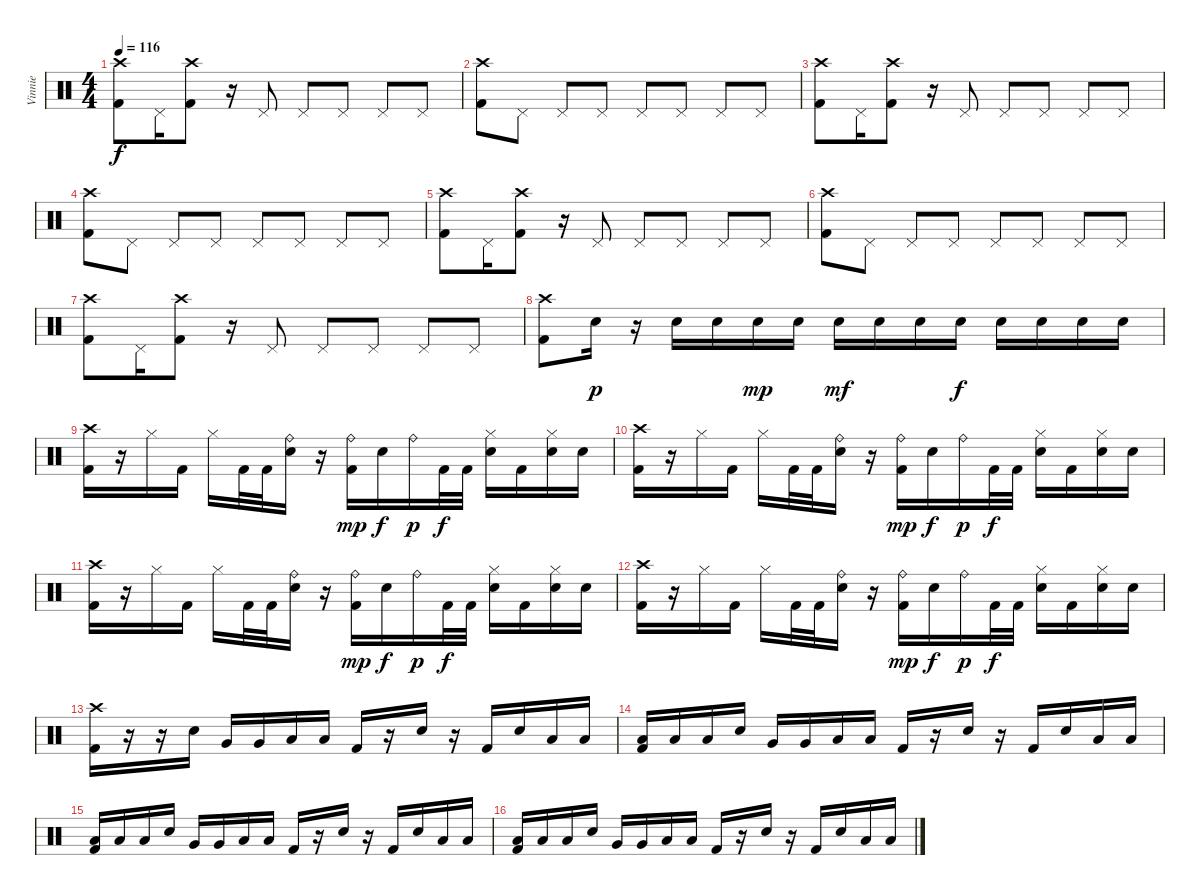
\track ("Vinnie" "Vinnie") {instrument percussion}
\staff {score}
\articulation defaults
\ts (4 4)
\tempo 116
\clef neutral
\ks c
("Crash high (hit)" "Kick (hit) 2").8{dy f} "Pedal Hi-Hat (hit)".16 ("Crash high (hit)" "Kick (hit) 2").8 r.16 "Pedal Hi-Hat (hit)".8 "Pedal Hi-Hat (hit)".8 "Pedal Hi-Hat (hit)".8 "Pedal Hi-Hat (hit)".8 "Pedal Hi-Hat (hit)".8 |
("Crash high (hit)" "Kick (hit) 2").8 "Pedal Hi-Hat (hit)".8 "Pedal Hi-Hat (hit)".8 "Pedal Hi-Hat (hit)".8 "Pedal Hi-Hat (hit)".8 "Pedal Hi-Hat (hit)".8 "Pedal Hi-Hat (hit)".8 "Pedal Hi-Hat (hit)".8 |
("Crash high (hit)" "Kick (hit) 2").8 "Pedal Hi-Hat (hit)".16 ("Crash high (hit)" "Kick (hit) 2").8 r.16 "Pedal Hi-Hat (hit)".8 "Pedal Hi-Hat (hit)".8 "Pedal Hi-Hat (hit)".8 "Pedal Hi-Hat (hit)".8 "Pedal Hi-Hat (hit)".8 |
("Crash high (hit)" "Kick (hit) 2").8 "Pedal Hi-Hat (hit)".8 "Pedal Hi-Hat (hit)".8 "Pedal Hi-Hat (hit)".8 "Pedal Hi-Hat (hit)".8 "Pedal Hi-Hat (hit)".8 "Pedal Hi-Hat (hit)".8 "Pedal Hi-Hat (hit)".8 |
("Crash high (hit)" "Kick (hit) 2").8 "Pedal Hi-Hat (hit)".16 ("Crash high (hit)" "Kick (hit) 2").8 r.16 "Pedal Hi-Hat (hit)".8 "Pedal Hi-Hat (hit)".8 "Pedal Hi-Hat (hit)".8 "Pedal Hi-Hat (hit)".8 "Pedal Hi-Hat (hit)".8 |
("Crash high (hit)" "Kick (hit) 2").8 "Pedal Hi-Hat (hit)".8 "Pedal Hi-Hat (hit)".8 "Pedal Hi-Hat (hit)".8 "Pedal Hi-Hat (hit)".8 "Pedal Hi-Hat (hit)".8 "Pedal Hi-Hat (hit)".8 "Pedal Hi-Hat (hit)".8 |
("Crash high (hit)" "Kick (hit) 2").8 "Pedal Hi-Hat (hit)".16 ("Crash high (hit)" "Kick (hit) 2").8 r.16 "Pedal Hi-Hat (hit)".8 "Pedal Hi-Hat (hit)".8 "Pedal Hi-Hat (hit)".8 "Pedal Hi-Hat (hit)".8 "Pedal Hi-Hat (hit)".8 |
("Crash high (hit)" "Kick (hit) 2").8 "Electric Snare (hit)".16{dy p} r.16 "Electric Snare (hit)".16 "Electric Snare (hit)".16 "Electric Snare (hit)".16{dy mp} "Electric Snare (hit)".16 "Electric Snare (hit)".16{dy mf} "Electric Snare (hit)".16 "Electric Snare (hit)".16 "Electric Snare (hit)".16{dy f} "Electric Snare (hit)".16 "Electric Snare (hit)".16 "Electric Snare (hit)".16 "Electric Snare (hit)".16 |
("Crash high (hit)" "Kick (hit) 2").16 r.16 "Hi-Hat (closed)".16 "Kick (hit) 2".16 "Hi-Hat (closed)".16 "Kick (hit) 2".32 "Kick (hit) 2".32 ("Ride (bell)" "Electric Snare (hit)").16 r.16 ("Ride (bell)" "Kick (hit) 2").16{dy mp} "Electric Snare (hit)".16{dy f} "Ride (bell)".16{dy p} "Kick (hit) 2".32{dy f} "Kick (hit) 2".32 ("Hi-Hat (closed)" "Electric Snare (hit)").16 "Kick (hit) 2".16 ("Hi-Hat (closed)" "Electric Snare (hit)").16 "Electric Snare (hit)".16 |
("Crash high (hit)" "Kick (hit) 2").16 r.16 "Hi-Hat (closed)".16 "Kick (hit) 2".16 "Hi-Hat (closed)".16 "Kick (hit) 2".32 "Kick (hit) 2".32 ("Ride (bell)" "Electric Snare (hit)").16 r.16 ("Ride (bell)" "Kick (hit) 2").16{dy mp} "Electric Snare (hit)".16{dy f} "Ride (bell)".16{dy p} "Kick (hit) 2".32{dy f} "Kick (hit) 2".32 ("Hi-Hat (closed)" "Electric Snare (hit)").16 "Kick (hit) 2".16 ("Hi-Hat (closed)" "Electric Snare (hit)").16 "Electric Snare (hit)".16 |
("Crash high (hit)" "Kick (hit) 2").16 r.16 "Hi-Hat (closed)".16 "Kick (hit) 2".16 "Hi-Hat (closed)".16 "Kick (hit) 2".32 "Kick (hit) 2".32 ("Ride (bell)" "Electric Snare (hit)").16 r.16 ("Ride (bell)" "Kick (hit) 2").16{dy mp} "Electric Snare (hit)".16{dy f} "Ride (bell)".16{dy p} "Kick (hit) 2".32{dy f} "Kick (hit) 2".32 ("Hi-Hat (closed)" "Electric Snare (hit)").16 "Kick (hit) 2".16 ("Hi-Hat (closed)" "Electric Snare (hit)").16 "Electric Snare (hit)".16 |
("Crash high (hit)" "Kick (hit) 2").16 r.16 "Hi-Hat (closed)".16 "Kick (hit) 2".16 "Hi-Hat (closed)".16 "Kick (hit) 2".32 "Kick (hit) 2".32 ("Ride (bell)" "Electric Snare (hit)").16 r.16 ("Ride (bell)" "Kick (hit) 2").16{dy mp} "Electric Snare (hit)".16{dy f} "Ride (bell)".16{dy p} "Kick (hit) 2".32{dy f} "Kick (hit) 2".32 ("Hi-Hat (closed)" "Electric Snare (hit)").16 "Kick (hit) 2".16 ("Hi-Hat (closed)" "Electric Snare (hit)").16 "Electric Snare (hit)".16 |
("Crash high (hit)" "Kick (hit) 2").16 r.16 r.16 "Electric Snare (hit)".16 "Very Low Tom (hit)".16 "Very Low Tom (hit)".16 "Low Floor Tom (hit)".16 "Low Floor Tom (hit)".16 "Kick (hit) 2".16 r.16 "Electric Snare (hit)".16 r.16 "Kick (hit) 2".16 "Electric Snare (hit)".16 "Low Floor Tom (hit)".16 "Low Floor Tom (hit)".16 |
("Low Floor Tom (hit)" "Kick (hit) 2").16 "Low Floor Tom (hit)".16 "Low Floor Tom (hit)".16 "Electric Snare (hit)".16 "Very Low Tom (hit)".16 "Very Low Tom (hit)".16 "Low Floor Tom (hit)".16 "Low Floor Tom (hit)".16 "Kick (hit) 2".16 r.16 "Electric Snare (hit)".16 r.16 "Kick (hit) 2".16 "Electric Snare (hit)".16 "Low Floor Tom (hit)".16 "Low Floor Tom (hit)".16 |
("Low Floor Tom (hit)" "Kick (hit) 2").16 "Low Floor Tom (hit)".16 "Low Floor Tom (hit)".16 "Electric Snare (hit)".16 "Very Low Tom (hit)".16 "Very Low Tom (hit)".16 "Low Floor Tom (hit)".16 "Low Floor Tom (hit)".16 "Kick (hit) 2".16 r.16 "Electric Snare (hit)".16 r.16 "Kick (hit) 2".16 "Electric Snare (hit)".16 "Low Floor Tom (hit)".16 "Low Floor Tom (hit)".16 |
("Low Floor Tom (hit)" "Kick (hit) 2").16 "Low Floor Tom (hit)".16 "Low Floor Tom (hit)".16 "Electric Snare (hit)".16 "Very Low Tom (hit)".16 "Very Low Tom (hit)".16 "Low Floor Tom (hit)".16 "Low Floor Tom (hit)".16 "Kick (hit) 2".16 r.16 "Electric Snare (hit)".16 r.16 "Kick (hit) 2".16 "Electric Snare (hit)".16 "Low Floor Tom (hit)".16 "Low Floor Tom (hit)".16
